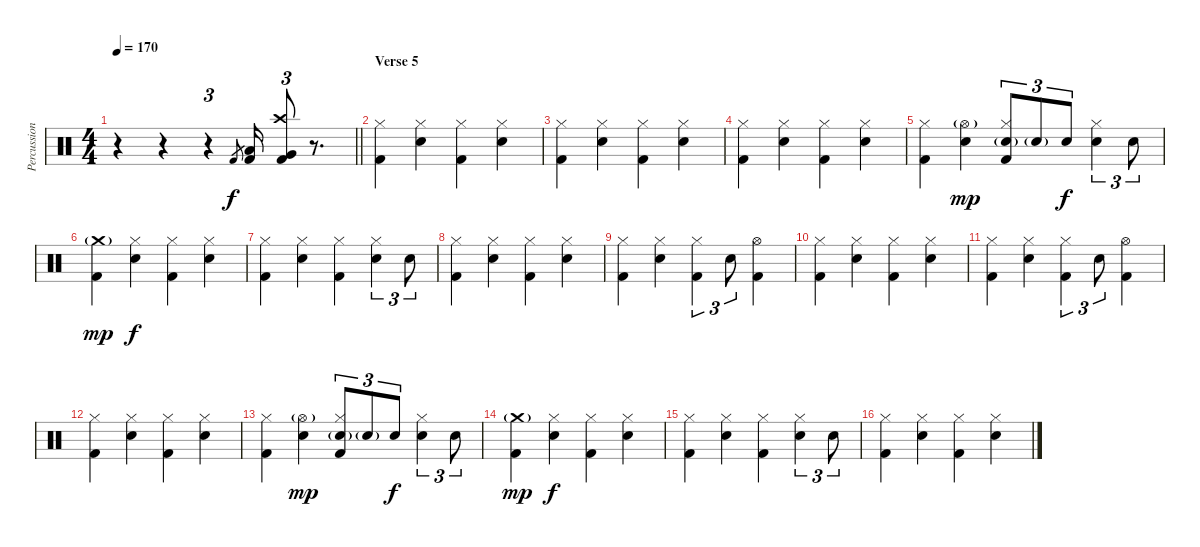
\track ("Percussion" "Percussion") {instrument percussion}
\staff {score}
\articulation defaults
\ts (4 4)
\tempo 170
\clef neutral
\barLineRight lightlight
\ks c
r.4{dy f} r.4 r.4{tu (3 2)} "Kick (hit) 2".8{gr} ("Low Tom (hit)" "Kick (hit) 2").16 ("Crash high (hit)" "Very Low Tom (hit)" "Kick (hit) 2").8{tu (3 2)} r.8{d} |
\section ("" "Verse 5")
("Hi-Hat (closed)" "Kick (hit) 2").4 ("Hi-Hat (closed)" "Snare (hit) 2").4 ("Hi-Hat (closed)" "Kick (hit) 2").4 ("Hi-Hat (closed)" "Snare (hit) 2").4 |
("Hi-Hat (closed)" "Kick (hit) 2").4 ("Hi-Hat (closed)" "Snare (hit) 2").4 ("Hi-Hat (closed)" "Kick (hit) 2").4 ("Hi-Hat (closed)" "Snare (hit) 2").4 |
("Hi-Hat (closed)" "Kick (hit) 2").4 ("Hi-Hat (closed)" "Snare (hit) 2").4 ("Hi-Hat (closed)" "Kick (hit) 2").4 ("Hi-Hat (closed)" "Snare (hit) 2").4 |
("Hi-Hat (closed)" "Kick (hit) 2").4 ("Hi-Hat (open)"{g} "Snare (hit) 2").4{dy mp} ("Hi-Hat (closed)" "Snare (hit) 2"{g} "Kick (hit) 2").8{tu (3 2)} "Snare (hit) 2"{g}.8{tu (3 2)} "Snare (hit) 2".8{tu (3 2) dy f} ("Hi-Hat (closed)" "Snare (hit) 2").4{tu (3 2)} "Snare (hit) 2".8{tu (3 2)} |
("Crash medium (hit)"{g} "Kick (hit) 2").4{dy mp} ("Hi-Hat (closed)" "Snare (hit) 2").4{dy f} ("Hi-Hat (closed)" "Kick (hit) 2").4 ("Hi-Hat (closed)" "Snare (hit) 2").4 |
("Hi-Hat (closed)" "Kick (hit) 2").4 ("Hi-Hat (closed)" "Snare (hit) 2").4 ("Hi-Hat (closed)" "Kick (hit) 2").4 ("Hi-Hat (closed)" "Snare (hit) 2").4{tu (3 2)} "Snare (hit) 2".8{tu (3 2)} |
("Hi-Hat (closed)" "Kick (hit) 2").4 ("Hi-Hat (closed)" "Snare (hit) 2").4 ("Hi-Hat (closed)" "Kick (hit) 2").4 ("Hi-Hat (closed)" "Snare (hit) 2").4 |
("Hi-Hat (closed)" "Kick (hit) 2").4 ("Hi-Hat (closed)" "Snare (hit) 2").4 ("Hi-Hat (closed)" "Kick (hit) 2").4{tu (3 2)} "Snare (hit) 2".8{tu (3 2)} ("Hi-Hat (open)" "Kick (hit) 2").4 |
("Hi-Hat (closed)" "Kick (hit) 2").4 ("Hi-Hat (closed)" "Snare (hit) 2").4 ("Hi-Hat (closed)" "Kick (hit) 2").4 ("Hi-Hat (closed)" "Snare (hit) 2").4 |
("Hi-Hat (closed)" "Kick (hit) 2").4 ("Hi-Hat (closed)" "Snare (hit) 2").4 ("Hi-Hat (closed)" "Kick (hit) 2").4{tu (3 2)} "Snare (hit) 2".8{tu (3 2)} ("Hi-Hat (open)" "Kick (hit) 2").4 |
("Hi-Hat (closed)" "Kick (hit) 2").4 ("Hi-Hat (closed)" "Snare (hit) 2").4 ("Hi-Hat (closed)" "Kick (hit) 2").4 ("Hi-Hat (closed)" "Snare (hit) 2").4 |
("Hi-Hat (closed)" "Kick (hit) 2").4 ("Hi-Hat (open)"{g} "Snare (hit) 2").4{dy mp} ("Hi-Hat (closed)" "Snare (hit) 2"{g} "Kick (hit) 2").8{tu (3 2)} "Snare (hit) 2"{g}.8{tu (3 2)} "Snare (hit) 2".8{tu (3 2) dy f} ("Hi-Hat (closed)" "Snare (hit) 2").4{tu (3 2)} "Snare (hit) 2".8{tu (3 2)} |
("Crash medium (hit)"{g} "Kick (hit) 2").4{dy mp} ("Hi-Hat (closed)" "Snare (hit) 2").4{dy f} ("Hi-Hat (closed)" "Kick (hit) 2").4 ("Hi-Hat (closed)" "Snare (hit) 2").4 |
("Hi-Hat (closed)" "Kick (hit) 2").4 ("Hi-Hat (closed)" "Snare (hit) 2").4 ("Hi-Hat (closed)" "Kick (hit) 2").4 ("Hi-Hat (closed)" "Snare (hit) 2").4{tu (3 2)} "Snare (hit) 2".8{tu (3 2)} |
("Hi-Hat (closed)" "Kick (hit) 2").4 ("Hi-Hat (closed)" "Snare (hit) 2").4 ("Hi-Hat (closed)" "Kick (hit) 2").4 ("Hi-Hat (closed)" "Snare (hit) 2").4
